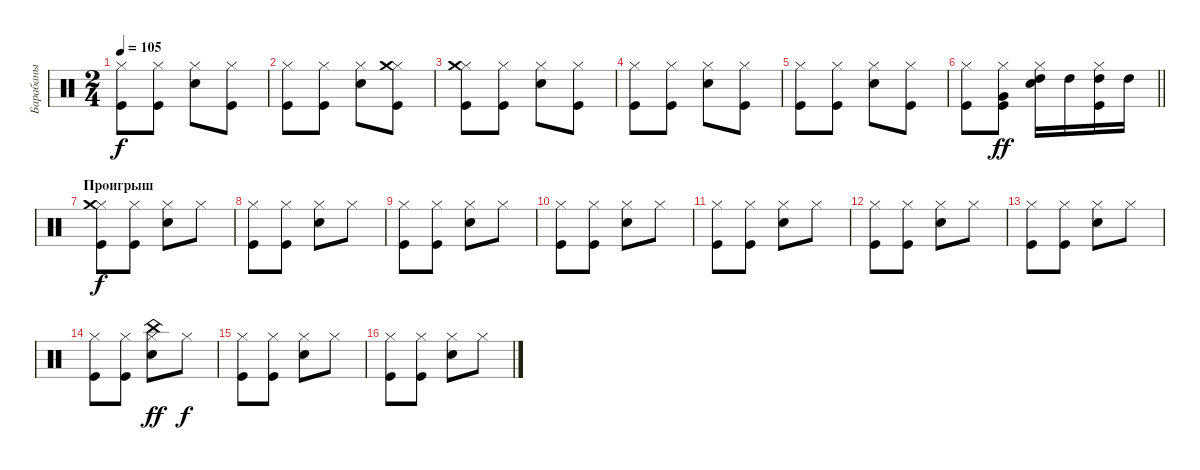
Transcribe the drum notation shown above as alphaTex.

\track ("Барабаны" "Барабаны") {instrument percussion}
\staff {score}
\articulation defaults
\ts (2 4)
\tempo 105
\clef neutral
\ks c
("Kick (hit)" "Hi-Hat (closed)").8{dy f} ("Kick (hit)" "Hi-Hat (closed)").8 ("Snare (hit) 2" "Hi-Hat (closed)").8 ("Kick (hit)" "Hi-Hat (closed)").8 |
("Kick (hit)" "Hi-Hat (closed)").8 ("Kick (hit)" "Hi-Hat (closed)").8 ("Snare (hit) 2" "Hi-Hat (closed)").8 ("Kick (hit)" "Hi-Hat (closed)" "Crash medium (hit)").8 |
("Kick (hit)" "Hi-Hat (closed)" "Crash medium (hit)").8 ("Kick (hit)" "Hi-Hat (closed)").8 ("Snare (hit) 2" "Hi-Hat (closed)").8 ("Kick (hit)" "Hi-Hat (closed)").8 |
("Kick (hit)" "Hi-Hat (closed)").8 ("Kick (hit)" "Hi-Hat (closed)").8 ("Snare (hit) 2" "Hi-Hat (closed)").8 ("Kick (hit)" "Hi-Hat (closed)").8 |
("Kick (hit)" "Hi-Hat (closed)").8 ("Kick (hit)" "Hi-Hat (closed)").8 ("Snare (hit) 2" "Hi-Hat (closed)").8 ("Kick (hit)" "Hi-Hat (closed)").8 |
\barLineRight lightlight
("Kick (hit)" "Hi-Hat (closed)").8 ("Kick (hit)" "Hi-Hat (closed)" "Very Low Tom (hit)").8{dy ff} ("Snare (hit) 2" "Hi-Hat (closed)" "High Tom (hit)").16 "High Tom (hit)".16 ("Kick (hit)" "Hi-Hat (closed)" "High Tom (hit)").16 "High Tom (hit)".16 |
\section ("" "Проигрыш")
("Kick (hit)" "Hi-Hat (closed)" "Crash medium (hit)").8{dy f} ("Kick (hit)" "Hi-Hat (closed)").8 ("Snare (hit) 2" "Hi-Hat (closed)").8 "Hi-Hat (closed)".8 |
("Kick (hit)" "Hi-Hat (closed)").8 ("Kick (hit)" "Hi-Hat (closed)").8 ("Snare (hit) 2" "Hi-Hat (closed)").8 "Hi-Hat (closed)".8 |
("Kick (hit)" "Hi-Hat (closed)").8 ("Kick (hit)" "Hi-Hat (closed)").8 ("Snare (hit) 2" "Hi-Hat (closed)").8 "Hi-Hat (closed)".8 |
("Kick (hit)" "Hi-Hat (closed)").8 ("Kick (hit)" "Hi-Hat (closed)").8 ("Snare (hit) 2" "Hi-Hat (closed)").8 "Hi-Hat (closed)".8 |
("Kick (hit)" "Hi-Hat (closed)").8 ("Kick (hit)" "Hi-Hat (closed)").8 ("Snare (hit) 2" "Hi-Hat (closed)").8 "Hi-Hat (closed)".8 |
("Kick (hit)" "Hi-Hat (closed)").8 ("Kick (hit)" "Hi-Hat (closed)").8 ("Snare (hit) 2" "Hi-Hat (closed)").8 "Hi-Hat (closed)".8 |
("Kick (hit)" "Hi-Hat (closed)").8 ("Kick (hit)" "Hi-Hat (closed)").8 ("Snare (hit) 2" "Hi-Hat (closed)").8 "Hi-Hat (closed)".8 |
("Kick (hit)" "Hi-Hat (closed)").8 ("Kick (hit)" "Hi-Hat (closed)").8 ("Snare (hit) 2" "Hi-Hat (closed)" "China (hit)").8{dy ff} "Hi-Hat (closed)".8{dy f} |
("Kick (hit)" "Hi-Hat (closed)").8 ("Kick (hit)" "Hi-Hat (closed)").8 ("Snare (hit) 2" "Hi-Hat (closed)").8 "Hi-Hat (closed)".8 |
("Kick (hit)" "Hi-Hat (closed)").8 ("Kick (hit)" "Hi-Hat (closed)").8 ("Snare (hit) 2" "Hi-Hat (closed)").8 "Hi-Hat (closed)".8
